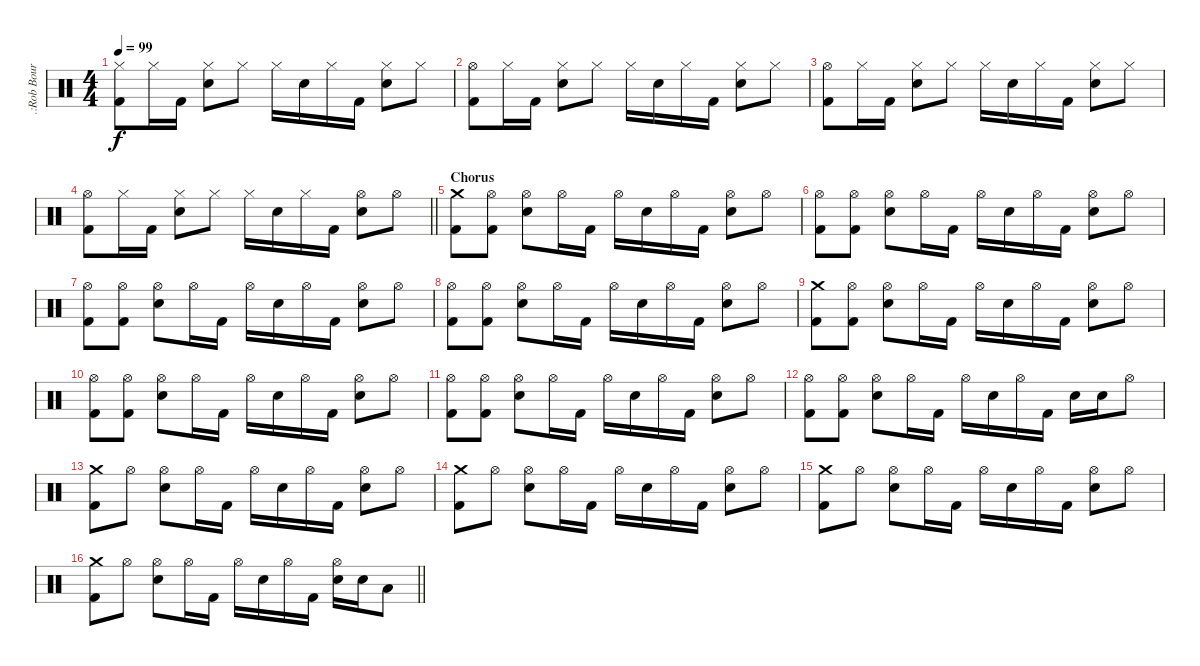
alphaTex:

\track (".:Rob Bourdon - Drums:." ".:Rob Bour") {instrument percussion}
\staff {score}
\articulation defaults
\ts (4 4)
\tempo 99
\clef neutral
\ks c
("Hi-Hat (closed)" "Kick (hit) 2").8{dy f} "Hi-Hat (closed)".16 "Kick (hit) 2".16 ("Hi-Hat (closed)" "Electric Snare (hit)").8 "Hi-Hat (closed)".8 "Hi-Hat (closed)".16 "Electric Snare (hit)".16 "Hi-Hat (closed)".16 "Kick (hit) 2".16 ("Hi-Hat (closed)" "Electric Snare (hit)").8 "Hi-Hat (closed)".8 |
("Hi-Hat (open)" "Kick (hit) 2").8 "Hi-Hat (closed)".16 "Kick (hit) 2".16 ("Hi-Hat (closed)" "Electric Snare (hit)").8 "Hi-Hat (closed)".8 "Hi-Hat (closed)".16 "Electric Snare (hit)".16 "Hi-Hat (closed)".16 "Kick (hit) 2".16 ("Hi-Hat (closed)" "Electric Snare (hit)").8 "Hi-Hat (closed)".8 |
("Hi-Hat (open)" "Kick (hit) 2").8 "Hi-Hat (closed)".16 "Kick (hit) 2".16 ("Hi-Hat (closed)" "Electric Snare (hit)").8 "Hi-Hat (closed)".8 "Hi-Hat (closed)".16 "Electric Snare (hit)".16 "Hi-Hat (closed)".16 "Kick (hit) 2".16 ("Hi-Hat (closed)" "Electric Snare (hit)").8 "Hi-Hat (closed)".8 |
\barLineRight lightlight
("Hi-Hat (open)" "Kick (hit) 2").8 "Hi-Hat (closed)".16 "Kick (hit) 2".16 ("Hi-Hat (closed)" "Electric Snare (hit)").8 "Hi-Hat (closed)".8 "Hi-Hat (closed)".16 "Electric Snare (hit)".16 "Hi-Hat (closed)".16 "Kick (hit) 2".16 ("Hi-Hat (open)" "Electric Snare (hit)").8 "Hi-Hat (open)".8 |
\section ("" "Chorus")
("Crash medium (hit)" "Kick (hit) 2").8 ("Hi-Hat (open)" "Kick (hit) 2").8 ("Hi-Hat (open)" "Electric Snare (hit)").8 "Hi-Hat (open)".16 "Kick (hit) 2".16 "Hi-Hat (open)".16 "Electric Snare (hit)".16 "Hi-Hat (open)".16 "Kick (hit) 2".16 ("Hi-Hat (open)" "Electric Snare (hit)").8 "Hi-Hat (open)".8 |
("Hi-Hat (open)" "Kick (hit) 2").8 ("Hi-Hat (open)" "Kick (hit) 2").8 ("Hi-Hat (open)" "Electric Snare (hit)").8 "Hi-Hat (open)".16 "Kick (hit) 2".16 "Hi-Hat (open)".16 "Electric Snare (hit)".16 "Hi-Hat (open)".16 "Kick (hit) 2".16 ("Hi-Hat (open)" "Electric Snare (hit)").8 "Hi-Hat (open)".8 |
("Hi-Hat (open)" "Kick (hit) 2").8 ("Hi-Hat (open)" "Kick (hit) 2").8 ("Hi-Hat (open)" "Electric Snare (hit)").8 "Hi-Hat (open)".16 "Kick (hit) 2".16 "Hi-Hat (open)".16 "Electric Snare (hit)".16 "Hi-Hat (open)".16 "Kick (hit) 2".16 ("Hi-Hat (open)" "Electric Snare (hit)").8 "Hi-Hat (open)".8 |
("Hi-Hat (open)" "Kick (hit) 2").8 ("Hi-Hat (open)" "Kick (hit) 2").8 ("Hi-Hat (open)" "Electric Snare (hit)").8 "Hi-Hat (open)".16 "Kick (hit) 2".16 "Hi-Hat (open)".16 "Electric Snare (hit)".16 "Hi-Hat (open)".16 "Kick (hit) 2".16 ("Hi-Hat (open)" "Electric Snare (hit)").8 "Hi-Hat (open)".8 |
("Crash medium (hit)" "Kick (hit) 2").8 ("Hi-Hat (open)" "Kick (hit) 2").8 ("Hi-Hat (open)" "Electric Snare (hit)").8 "Hi-Hat (open)".16 "Kick (hit) 2".16 "Hi-Hat (open)".16 "Electric Snare (hit)".16 "Hi-Hat (open)".16 "Kick (hit) 2".16 ("Hi-Hat (open)" "Electric Snare (hit)").8 "Hi-Hat (open)".8 |
("Hi-Hat (open)" "Kick (hit) 2").8 ("Hi-Hat (open)" "Kick (hit) 2").8 ("Hi-Hat (open)" "Electric Snare (hit)").8 "Hi-Hat (open)".16 "Kick (hit) 2".16 "Hi-Hat (open)".16 "Electric Snare (hit)".16 "Hi-Hat (open)".16 "Kick (hit) 2".16 ("Hi-Hat (open)" "Electric Snare (hit)").8 "Hi-Hat (open)".8 |
("Hi-Hat (open)" "Kick (hit) 2").8 ("Hi-Hat (open)" "Kick (hit) 2").8 ("Hi-Hat (open)" "Electric Snare (hit)").8 "Hi-Hat (open)".16 "Kick (hit) 2".16 "Hi-Hat (open)".16 "Electric Snare (hit)".16 "Hi-Hat (open)".16 "Kick (hit) 2".16 ("Hi-Hat (open)" "Electric Snare (hit)").8 "Hi-Hat (open)".8 |
("Hi-Hat (open)" "Kick (hit) 2").8 ("Hi-Hat (open)" "Kick (hit) 2").8 ("Hi-Hat (open)" "Electric Snare (hit)").8 "Hi-Hat (open)".16 "Kick (hit) 2".16 "Hi-Hat (open)".16 "Electric Snare (hit)".16 "Hi-Hat (open)".16 "Kick (hit) 2".16 "Electric Snare (hit)".16 "Electric Snare (hit)".16 "Hi-Hat (open)".8 |
("Crash medium (hit)" "Kick (hit) 2").8 "Hi-Hat (open)".8 ("Hi-Hat (open)" "Electric Snare (hit)").8 "Hi-Hat (open)".16 "Kick (hit) 2".16 "Hi-Hat (open)".16 "Electric Snare (hit)".16 "Hi-Hat (open)".16 "Kick (hit) 2".16 ("Hi-Hat (open)" "Electric Snare (hit)").8 "Hi-Hat (open)".8 |
("Crash medium (hit)" "Kick (hit) 2").8 "Hi-Hat (open)".8 ("Hi-Hat (open)" "Electric Snare (hit)").8 "Hi-Hat (open)".16 "Kick (hit) 2".16 "Hi-Hat (open)".16 "Electric Snare (hit)".16 "Hi-Hat (open)".16 "Kick (hit) 2".16 ("Hi-Hat (open)" "Electric Snare (hit)").8 "Hi-Hat (open)".8 |
("Crash medium (hit)" "Kick (hit) 2").8 "Hi-Hat (open)".8 ("Hi-Hat (open)" "Electric Snare (hit)").8 "Hi-Hat (open)".16 "Kick (hit) 2".16 "Hi-Hat (open)".16 "Electric Snare (hit)".16 "Hi-Hat (open)".16 "Kick (hit) 2".16 ("Hi-Hat (open)" "Electric Snare (hit)").8 "Hi-Hat (open)".8 |
\barLineRight lightlight
("Crash medium (hit)" "Kick (hit) 2").8 "Hi-Hat (open)".8 ("Hi-Hat (open)" "Electric Snare (hit)").8 "Hi-Hat (open)".16 "Kick (hit) 2".16 "Hi-Hat (open)".16 "Electric Snare (hit)".16 "Hi-Hat (open)".16 "Kick (hit) 2".16 ("Hi-Hat (open)" "Electric Snare (hit)").16 "Electric Snare (hit)".16 "Low Tom (hit)".8
